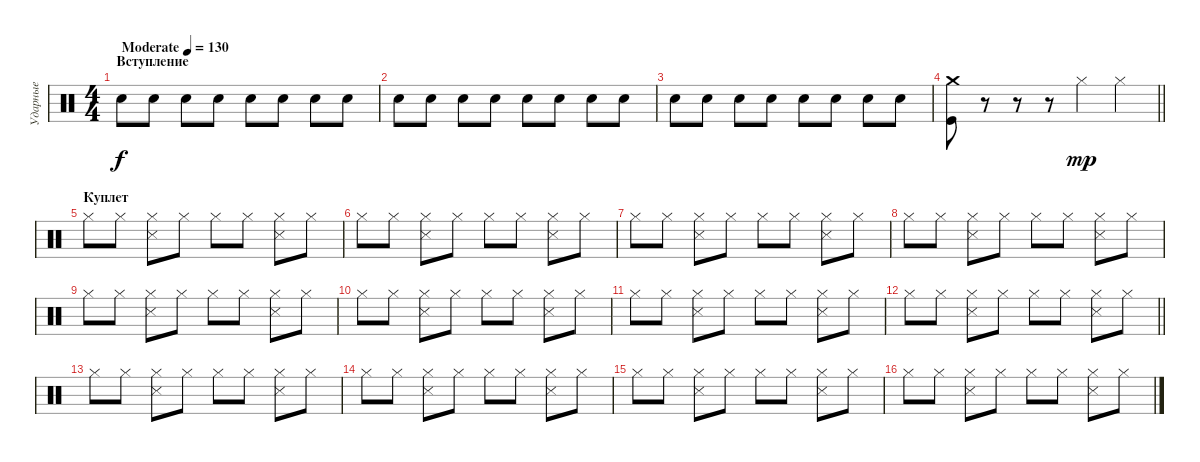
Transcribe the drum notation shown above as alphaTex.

\track ("Ударные" "Ударные") {instrument percussion}
\staff {score}
\articulation defaults
\ts (4 4)
\section ("" "Вступление")
\tempo (130 "Moderate")
\clef neutral
\ks c "Electric Snare (hit)".8{dy f} "Electric Snare (hit)".8 "Electric Snare (hit)".8 "Electric Snare (hit)".8 "Electric Snare (hit)".8 "Electric Snare (hit)".8 "Electric Snare (hit)".8 "Electric Snare (hit)".8
|
"Electric Snare (hit)".8 "Electric Snare (hit)".8 "Electric Snare (hit)".8 "Electric Snare (hit)".8 "Electric Snare (hit)".8 "Electric Snare (hit)".8 "Electric Snare (hit)".8 "Electric Snare (hit)".8 |
"Electric Snare (hit)".8 "Electric Snare (hit)".8 "Electric Snare (hit)".8 "Electric Snare (hit)".8 "Electric Snare (hit)".8 "Electric Snare (hit)".8 "Electric Snare (hit)".8 "Electric Snare (hit)".8 |
\barLineRight lightlight
("Crash medium (hit)" "Kick (hit)").8 r.8 r.8 r.8 "Hi-Hat (closed)".4{dy mp} "Hi-Hat (closed)".4 |
\section ("" "Куплет")
"Hi-Hat (closed)".8 "Hi-Hat (closed)".8 ("Hi-Hat (closed)" "Snare (side stick) 3").8 "Hi-Hat (closed)".8 "Hi-Hat (closed)".8 "Hi-Hat (closed)".8 ("Hi-Hat (closed)" "Snare (side stick) 3").8 "Hi-Hat (closed)".8 |
"Hi-Hat (closed)".8 "Hi-Hat (closed)".8 ("Hi-Hat (closed)" "Snare (side stick) 3").8 "Hi-Hat (closed)".8 "Hi-Hat (closed)".8 "Hi-Hat (closed)".8 ("Hi-Hat (closed)" "Snare (side stick) 3").8 "Hi-Hat (closed)".8 |
"Hi-Hat (closed)".8 "Hi-Hat (closed)".8 ("Hi-Hat (closed)" "Snare (side stick) 3").8 "Hi-Hat (closed)".8 "Hi-Hat (closed)".8 "Hi-Hat (closed)".8 ("Hi-Hat (closed)" "Snare (side stick) 3").8 "Hi-Hat (closed)".8 |
"Hi-Hat (closed)".8 "Hi-Hat (closed)".8 ("Hi-Hat (closed)" "Snare (side stick) 3").8 "Hi-Hat (closed)".8 "Hi-Hat (closed)".8 "Hi-Hat (closed)".8 ("Hi-Hat (closed)" "Snare (side stick) 3").8 "Hi-Hat (closed)".8 |
"Hi-Hat (closed)".8 "Hi-Hat (closed)".8 ("Hi-Hat (closed)" "Snare (side stick) 3").8 "Hi-Hat (closed)".8 "Hi-Hat (closed)".8 "Hi-Hat (closed)".8 ("Hi-Hat (closed)" "Snare (side stick) 3").8 "Hi-Hat (closed)".8 |
"Hi-Hat (closed)".8 "Hi-Hat (closed)".8 ("Hi-Hat (closed)" "Snare (side stick) 3").8 "Hi-Hat (closed)".8 "Hi-Hat (closed)".8 "Hi-Hat (closed)".8 ("Hi-Hat (closed)" "Snare (side stick) 3").8 "Hi-Hat (closed)".8 |
"Hi-Hat (closed)".8 "Hi-Hat (closed)".8 ("Hi-Hat (closed)" "Snare (side stick) 3").8 "Hi-Hat (closed)".8 "Hi-Hat (closed)".8 "Hi-Hat (closed)".8 ("Hi-Hat (closed)" "Snare (side stick) 3").8 "Hi-Hat (closed)".8 |
\barLineRight lightlight "Hi-Hat (closed)".8 "Hi-Hat (closed)".8
("Hi-Hat (closed)" "Snare (side stick) 3").8 "Hi-Hat (closed)".8 "Hi-Hat (closed)".8 "Hi-Hat (closed)".8 ("Hi-Hat (closed)" "Snare (side stick) 3").8 "Hi-Hat (closed)".8 |
\section ("" " ")
"Hi-Hat (closed)".8 "Hi-Hat (closed)".8 ("Hi-Hat (closed)" "Snare (side stick) 3").8 "Hi-Hat (closed)".8 "Hi-Hat (closed)".8 "Hi-Hat (closed)".8 ("Hi-Hat (closed)" "Snare (side stick) 3").8 "Hi-Hat (closed)".8 |
"Hi-Hat (closed)".8 "Hi-Hat (closed)".8 ("Hi-Hat (closed)" "Snare (side stick) 3").8 "Hi-Hat (closed)".8 "Hi-Hat (closed)".8 "Hi-Hat (closed)".8 ("Hi-Hat (closed)" "Snare (side stick) 3").8 "Hi-Hat (closed)".8 |
"Hi-Hat (closed)".8 "Hi-Hat (closed)".8 ("Hi-Hat (closed)" "Snare (side stick) 3").8 "Hi-Hat (closed)".8 "Hi-Hat (closed)".8 "Hi-Hat (closed)".8 ("Hi-Hat (closed)" "Snare (side stick) 3").8 "Hi-Hat (closed)".8 |
"Hi-Hat (closed)".8 "Hi-Hat (closed)".8 ("Hi-Hat (closed)" "Snare (side stick) 3").8 "Hi-Hat (closed)".8 "Hi-Hat (closed)".8 "Hi-Hat (closed)".8 ("Hi-Hat (closed)" "Snare (side stick) 3").8 "Hi-Hat (closed)".8
